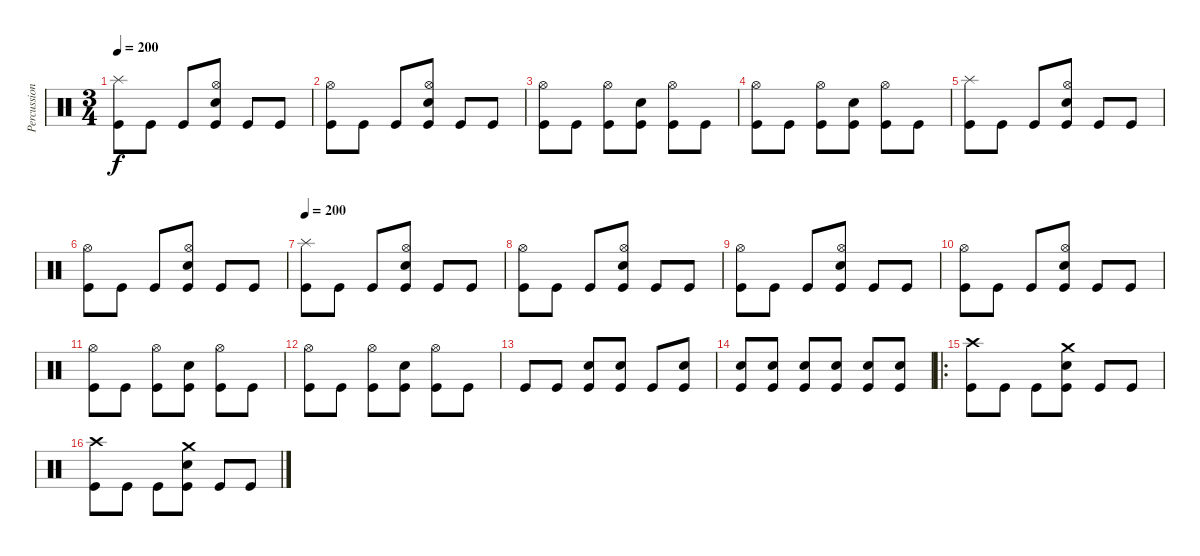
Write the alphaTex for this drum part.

\track ("Percussion" "Percussion") {instrument percussion}
\staff {score}
\articulation defaults
\ts (3 4)
\tempo 200
\clef neutral
\ks c
("Splash (hit)" "Kick (hit)").8{dy f} "Kick (hit)".8 "Kick (hit)".8 ("Hi-Hat (open)" "Snare (hit) 2" "Kick (hit)").8 "Kick (hit)".8 "Kick (hit)".8 |
("Hi-Hat (open)" "Kick (hit)").8 "Kick (hit)".8 "Kick (hit)".8 ("Hi-Hat (open)" "Snare (hit) 2" "Kick (hit)").8 "Kick (hit)".8 "Kick (hit)".8 |
("Hi-Hat (open)" "Kick (hit)").8 "Kick (hit)".8 ("Hi-Hat (open)" "Kick (hit)").8 ("Snare (hit) 2" "Kick (hit)").8 ("Hi-Hat (open)" "Kick (hit)").8 "Kick (hit)".8 |
("Hi-Hat (open)" "Kick (hit)").8 "Kick (hit)".8 ("Hi-Hat (open)" "Kick (hit)").8 ("Snare (hit) 2" "Kick (hit)").8 ("Hi-Hat (open)" "Kick (hit)").8 "Kick (hit)".8 |
("Splash (hit)" "Kick (hit)").8 "Kick (hit)".8 "Kick (hit)".8 ("Hi-Hat (open)" "Snare (hit) 2" "Kick (hit)").8 "Kick (hit)".8 "Kick (hit)".8 |
("Hi-Hat (open)" "Kick (hit)").8 "Kick (hit)".8 "Kick (hit)".8 ("Hi-Hat (open)" "Snare (hit) 2" "Kick (hit)").8 "Kick (hit)".8 "Kick (hit)".8 |
\tempo 200
("Splash (hit)" "Kick (hit)").8 "Kick (hit)".8 "Kick (hit)".8 ("Hi-Hat (open)" "Snare (hit) 2" "Kick (hit)").8 "Kick (hit)".8 "Kick (hit)".8 |
("Hi-Hat (open)" "Kick (hit)").8 "Kick (hit)".8 "Kick (hit)".8 ("Hi-Hat (open)" "Snare (hit) 2" "Kick (hit)").8 "Kick (hit)".8 "Kick (hit)".8 |
("Hi-Hat (open)" "Kick (hit)").8 "Kick (hit)".8 "Kick (hit)".8 ("Hi-Hat (open)" "Snare (hit) 2" "Kick (hit)").8 "Kick (hit)".8 "Kick (hit)".8 |
("Hi-Hat (open)" "Kick (hit)").8 "Kick (hit)".8 "Kick (hit)".8 ("Hi-Hat (open)" "Snare (hit) 2" "Kick (hit)").8 "Kick (hit)".8 "Kick (hit)".8 |
("Hi-Hat (open)" "Kick (hit)").8 "Kick (hit)".8 ("Hi-Hat (open)" "Kick (hit)").8 ("Snare (hit) 2" "Kick (hit)").8 ("Hi-Hat (open)" "Kick (hit)").8 "Kick (hit)".8 |
("Hi-Hat (open)" "Kick (hit)").8 "Kick (hit)".8 ("Hi-Hat (open)" "Kick (hit)").8 ("Snare (hit) 2" "Kick (hit)").8 ("Hi-Hat (open)" "Kick (hit)").8 "Kick (hit)".8 |
"Kick (hit)".8 "Kick (hit)".8 ("Snare (hit) 2" "Kick (hit)").8 ("Snare (hit) 2" "Kick (hit)").8 "Kick (hit)".8 ("Snare (hit) 2" "Kick (hit)").8 |
("Snare (hit) 2" "Kick (hit)").8 ("Snare (hit) 2" "Kick (hit)").8 ("Snare (hit) 2" "Kick (hit)").8 ("Snare (hit) 2" "Kick (hit)").8 ("Snare (hit) 2" "Kick (hit)").8 ("Snare (hit) 2" "Kick (hit)").8 |
\ro
("Crash high (hit)" "Kick (hit)").8 "Kick (hit)".8 "Kick (hit)".8 ("Crash medium (hit)" "Snare (hit) 2" "Kick (hit)").8 "Kick (hit)".8 "Kick (hit)".8 |
("Crash high (hit)" "Kick (hit)").8 "Kick (hit)".8 "Kick (hit)".8 ("Crash medium (hit)" "Snare (hit) 2" "Kick (hit)").8 "Kick (hit)".8 "Kick (hit)".8
